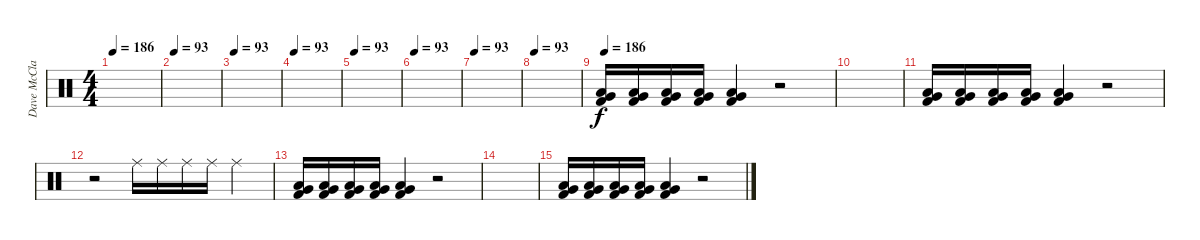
\track ("Dave McClain" "Dave McCla") {instrument percussion}
\staff {score}
\articulation defaults
\ts (4 4)
\tempo 186
\tempo 93
\tempo 186
\clef neutral
\ks c
|
\tempo 93
|
\tempo 93
|
\tempo 93
|
\tempo 93
|
\tempo 93
|
\tempo 93
|
\tempo 93
|
\tempo 186
("Very Low Tom (hit)" "Low Floor Tom (hit)" "Kick (hit) 2").16 ("Very Low Tom (hit)" "Low Floor Tom (hit)" "Kick (hit) 2").16 ("Very Low Tom (hit)" "Low Floor Tom (hit)" "Kick (hit) 2").16 ("Very Low Tom (hit)" "Low Floor Tom (hit)" "Kick (hit) 2").16 ("Very Low Tom (hit)" "Low Floor Tom (hit)" "Kick (hit) 2").4 r.2 |
|
("Very Low Tom (hit)" "Low Floor Tom (hit)" "Kick (hit) 2").16 ("Very Low Tom (hit)" "Low Floor Tom (hit)" "Kick (hit) 2").16 ("Very Low Tom (hit)" "Low Floor Tom (hit)" "Kick (hit) 2").16 ("Very Low Tom (hit)" "Low Floor Tom (hit)" "Kick (hit) 2").16 ("Very Low Tom (hit)" "Low Floor Tom (hit)" "Kick (hit) 2").4 r.2 |
r.2 "Ride (middle)".16 "Ride (middle)".16 "Ride (middle)".16 "Ride (middle)".16 "Ride (middle)".4 |
("Very Low Tom (hit)" "Low Floor Tom (hit)" "Kick (hit) 2").16 ("Very Low Tom (hit)" "Low Floor Tom (hit)" "Kick (hit) 2").16 ("Very Low Tom (hit)" "Low Floor Tom (hit)" "Kick (hit) 2").16 ("Very Low Tom (hit)" "Low Floor Tom (hit)" "Kick (hit) 2").16 ("Very Low Tom (hit)" "Low Floor Tom (hit)" "Kick (hit) 2").4 r.2 |
|
("Very Low Tom (hit)" "Low Floor Tom (hit)" "Kick (hit) 2").16 ("Very Low Tom (hit)" "Low Floor Tom (hit)" "Kick (hit) 2").16 ("Very Low Tom (hit)" "Low Floor Tom (hit)" "Kick (hit) 2").16 ("Very Low Tom (hit)" "Low Floor Tom (hit)" "Kick (hit) 2").16 ("Very Low Tom (hit)" "Low Floor Tom (hit)" "Kick (hit) 2").4 r.2
